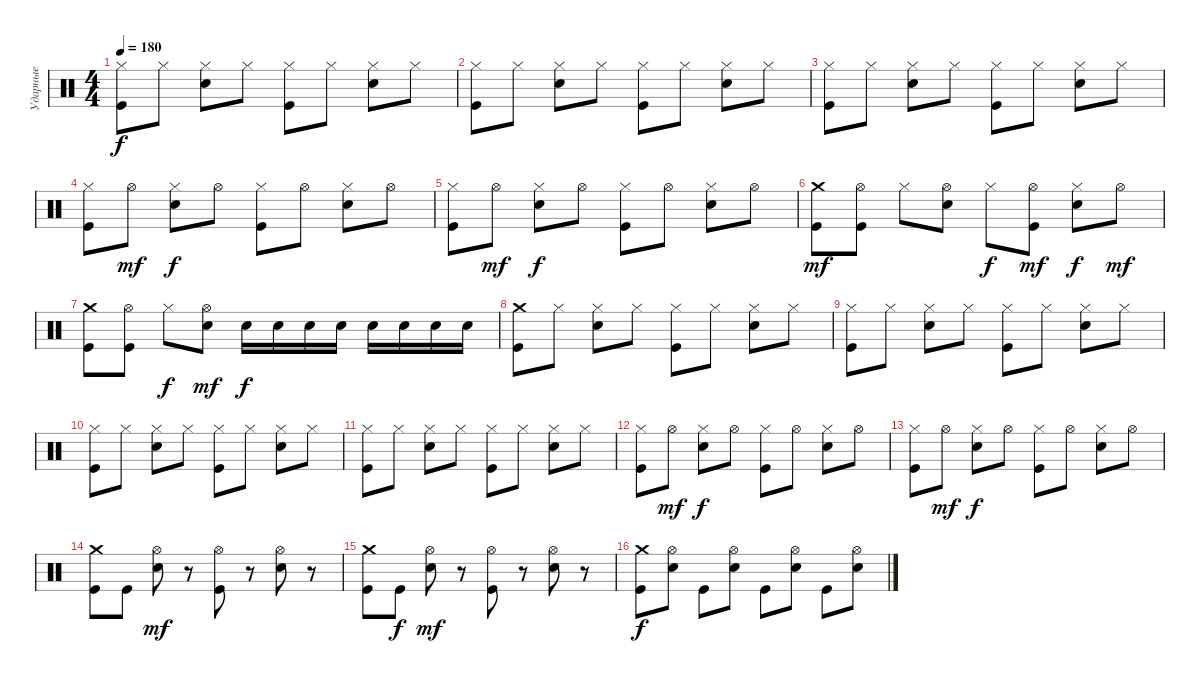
\track ("Ударные" "Ударные") {instrument percussion}
\staff {score}
\articulation defaults
\ts (4 4)
\tempo 180
\clef neutral
\ks c
("Hi-Hat (closed)" "Kick (hit)").8{dy f} "Hi-Hat (closed)".8 ("Hi-Hat (closed)" "Electric Snare (hit)").8 "Hi-Hat (closed)".8 ("Hi-Hat (closed)" "Kick (hit)").8 "Hi-Hat (closed)".8 ("Hi-Hat (closed)" "Electric Snare (hit)").8 "Hi-Hat (closed)".8 |
("Hi-Hat (closed)" "Kick (hit)").8 "Hi-Hat (closed)".8 ("Hi-Hat (closed)" "Electric Snare (hit)").8 "Hi-Hat (closed)".8 ("Hi-Hat (closed)" "Kick (hit)").8 "Hi-Hat (closed)".8 ("Hi-Hat (closed)" "Electric Snare (hit)").8 "Hi-Hat (closed)".8 |
("Hi-Hat (closed)" "Kick (hit)").8 "Hi-Hat (closed)".8 ("Hi-Hat (closed)" "Electric Snare (hit)").8 "Hi-Hat (closed)".8 ("Hi-Hat (closed)" "Kick (hit)").8 "Hi-Hat (closed)".8 ("Hi-Hat (closed)" "Electric Snare (hit)").8 "Hi-Hat (closed)".8 |
("Hi-Hat (closed)" "Kick (hit)").8 "Hi-Hat (open)".8{dy mf} ("Hi-Hat (closed)" "Electric Snare (hit)").8{dy f} "Hi-Hat (open)".8 ("Hi-Hat (closed)" "Kick (hit)").8 "Hi-Hat (open)".8 ("Hi-Hat (closed)" "Electric Snare (hit)").8 "Hi-Hat (open)".8 |
("Hi-Hat (closed)" "Kick (hit)").8 "Hi-Hat (open)".8{dy mf} ("Hi-Hat (closed)" "Electric Snare (hit)").8{dy f} "Hi-Hat (open)".8 ("Hi-Hat (closed)" "Kick (hit)").8 "Hi-Hat (open)".8 ("Hi-Hat (closed)" "Electric Snare (hit)").8 "Hi-Hat (open)".8 |
("Crash medium (hit)" "Kick (hit)").8{dy mf} ("Hi-Hat (open)" "Kick (hit)").8 "Hi-Hat (closed)".8 ("Hi-Hat (open)" "Electric Snare (hit)").8 "Hi-Hat (closed)".8{dy f} ("Hi-Hat (open)" "Kick (hit)").8{dy mf} ("Hi-Hat (closed)" "Electric Snare (hit)").8{dy f} "Hi-Hat (open)".8{dy mf} |
("Crash medium (hit)" "Kick (hit)").8 ("Hi-Hat (open)" "Kick (hit)").8 "Hi-Hat (closed)".8{dy f} ("Hi-Hat (open)" "Electric Snare (hit)").8{dy mf} "Electric Snare (hit)".16{dy f} "Electric Snare (hit)".16 "Electric Snare (hit)".16 "Electric Snare (hit)".16 "Electric Snare (hit)".16 "Electric Snare (hit)".16 "Electric Snare (hit)".16 "Electric Snare (hit)".16 |
("Crash medium (hit)" "Kick (hit)").8 "Hi-Hat (closed)".8 ("Hi-Hat (closed)" "Electric Snare (hit)").8 "Hi-Hat (closed)".8 ("Hi-Hat (closed)" "Kick (hit)").8 "Hi-Hat (closed)".8 ("Hi-Hat (closed)" "Electric Snare (hit)").8 "Hi-Hat (closed)".8 |
("Hi-Hat (closed)" "Kick (hit)").8 "Hi-Hat (closed)".8 ("Hi-Hat (closed)" "Electric Snare (hit)").8 "Hi-Hat (closed)".8 ("Hi-Hat (closed)" "Kick (hit)").8 "Hi-Hat (closed)".8 ("Hi-Hat (closed)" "Electric Snare (hit)").8 "Hi-Hat (closed)".8 |
("Hi-Hat (closed)" "Kick (hit)").8 "Hi-Hat (closed)".8 ("Hi-Hat (closed)" "Electric Snare (hit)").8 "Hi-Hat (closed)".8 ("Hi-Hat (closed)" "Kick (hit)").8 "Hi-Hat (closed)".8 ("Hi-Hat (closed)" "Electric Snare (hit)").8 "Hi-Hat (closed)".8 |
("Hi-Hat (closed)" "Kick (hit)").8 "Hi-Hat (closed)".8 ("Hi-Hat (closed)" "Electric Snare (hit)").8 "Hi-Hat (closed)".8 ("Hi-Hat (closed)" "Kick (hit)").8 "Hi-Hat (closed)".8 ("Hi-Hat (closed)" "Electric Snare (hit)").8 "Hi-Hat (closed)".8 |
("Hi-Hat (closed)" "Kick (hit)").8 "Hi-Hat (open)".8{dy mf} ("Hi-Hat (closed)" "Electric Snare (hit)").8{dy f} "Hi-Hat (open)".8 ("Hi-Hat (closed)" "Kick (hit)").8 "Hi-Hat (open)".8 ("Hi-Hat (closed)" "Electric Snare (hit)").8 "Hi-Hat (open)".8 |
("Hi-Hat (closed)" "Kick (hit)").8 "Hi-Hat (open)".8{dy mf} ("Hi-Hat (closed)" "Electric Snare (hit)").8{dy f} "Hi-Hat (open)".8 ("Hi-Hat (closed)" "Kick (hit)").8 "Hi-Hat (open)".8 ("Hi-Hat (closed)" "Electric Snare (hit)").8 "Hi-Hat (open)".8 |
("Crash medium (hit)" "Kick (hit)").8 "Kick (hit)".8 ("Hi-Hat (open)" "Electric Snare (hit)").8{dy mf} r.8 ("Hi-Hat (open)" "Kick (hit)").8 r.8 ("Hi-Hat (open)" "Electric Snare (hit)").8 r.8 |
("Crash medium (hit)" "Kick (hit)").8 "Kick (hit)".8{dy f} ("Hi-Hat (open)" "Electric Snare (hit)").8{dy mf} r.8 ("Hi-Hat (open)" "Kick (hit)").8 r.8 ("Hi-Hat (open)" "Electric Snare (hit)").8 r.8 |
("Crash medium (hit)" "Kick (hit)").8{dy f} ("Hi-Hat (open)" "Electric Snare (hit)").8 "Kick (hit)".8 ("Hi-Hat (open)" "Electric Snare (hit)").8 "Kick (hit)".8 ("Hi-Hat (open)" "Electric Snare (hit)").8 "Kick (hit)".8 ("Hi-Hat (open)" "Electric Snare (hit)").8
